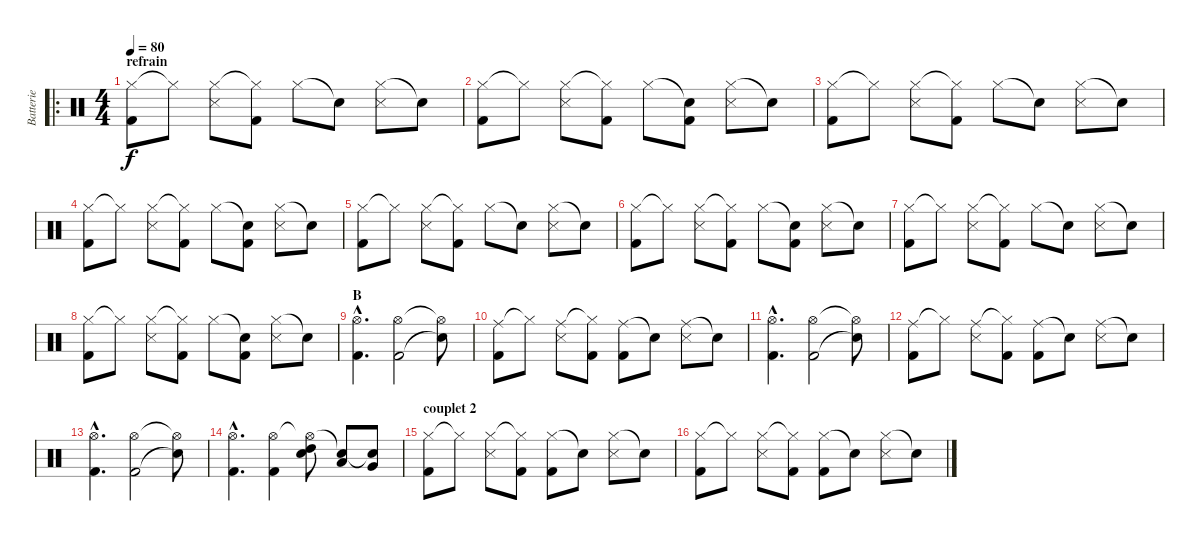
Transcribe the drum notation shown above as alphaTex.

\track ("Batterie" "Batterie") {instrument percussion}
\staff {score}
\articulation defaults
\ro
\ts (4 4)
\section ("" "refrain")
\tempo 80
\clef neutral
\ks c
("Hi-Hat (closed)" "Kick (hit) 2").8{dy f} "Hi-Hat (closed)"{t}.8 ("Hi-Hat (closed)" "Snare (side stick) 3").8 ("Hi-Hat (closed)"{t} "Kick (hit) 2").8 "Hi-Hat (closed)".8 "Snare (hit)"{t}.8 ("Hi-Hat (closed)" "Snare (side stick) 3").8 "Snare (hit)"{t}.8 |
("Hi-Hat (closed)" "Kick (hit) 2").8 "Hi-Hat (closed)"{t}.8 ("Hi-Hat (closed)" "Snare (side stick) 3").8 ("Hi-Hat (closed)"{t} "Kick (hit) 2").8 "Hi-Hat (closed)".8 ("Snare (hit)"{t} "Kick (hit) 2").8 ("Hi-Hat (closed)" "Snare (side stick) 3").8 "Snare (hit)"{t}.8 |
("Hi-Hat (closed)" "Kick (hit) 2").8 "Hi-Hat (closed)"{t}.8 ("Hi-Hat (closed)" "Snare (side stick) 3").8 ("Hi-Hat (closed)"{t} "Kick (hit) 2").8 "Hi-Hat (closed)".8 "Snare (hit)"{t}.8 ("Hi-Hat (closed)" "Snare (side stick) 3").8 "Snare (hit)"{t}.8 |
("Hi-Hat (closed)" "Kick (hit) 2").8 "Hi-Hat (closed)"{t}.8 ("Hi-Hat (closed)" "Snare (side stick) 3").8 ("Hi-Hat (closed)"{t} "Kick (hit) 2").8 "Hi-Hat (closed)".8 ("Snare (hit)"{t} "Kick (hit) 2").8 ("Hi-Hat (closed)" "Snare (side stick) 3").8 "Snare (hit)"{t}.8 |
("Hi-Hat (closed)" "Kick (hit) 2").8 "Hi-Hat (closed)"{t}.8 ("Hi-Hat (closed)" "Snare (side stick) 3").8 ("Hi-Hat (closed)"{t} "Kick (hit) 2").8 "Hi-Hat (closed)".8 "Snare (hit)"{t}.8 ("Hi-Hat (closed)" "Snare (side stick) 3").8 "Snare (hit)"{t}.8 |
("Hi-Hat (closed)" "Kick (hit) 2").8 "Hi-Hat (closed)"{t}.8 ("Hi-Hat (closed)" "Snare (side stick) 3").8 ("Hi-Hat (closed)"{t} "Kick (hit) 2").8 "Hi-Hat (closed)".8 ("Snare (hit)"{t} "Kick (hit) 2").8 ("Hi-Hat (closed)" "Snare (side stick) 3").8 "Snare (hit)"{t}.8 |
("Hi-Hat (closed)" "Kick (hit) 2").8 "Hi-Hat (closed)"{t}.8 ("Hi-Hat (closed)" "Snare (side stick) 3").8 ("Hi-Hat (closed)"{t} "Kick (hit) 2").8 "Hi-Hat (closed)".8 "Snare (hit)"{t}.8 ("Hi-Hat (closed)" "Snare (side stick) 3").8 "Snare (hit)"{t}.8 |
("Hi-Hat (closed)" "Kick (hit) 2").8 "Hi-Hat (closed)"{t}.8 ("Hi-Hat (closed)" "Snare (side stick) 3").8 ("Hi-Hat (closed)"{t} "Kick (hit) 2").8 "Hi-Hat (closed)".8 ("Snare (hit)"{t} "Kick (hit) 2").8 ("Hi-Hat (closed)" "Snare (side stick) 3").8 "Snare (hit)"{t}.8 |
\section ("" "B")
("Hi-Hat (open)"{hac} "Kick (hit) 2"{hac}).4{d} ("Hi-Hat (open)" "Kick (hit) 2").2 ("Hi-Hat (open)"{t} "Snare (hit)"{t}).8 |
("Ride (middle)" "Kick (hit) 2").8 "Hi-Hat (closed)"{t}.8 ("Ride (middle)" "Snare (side stick) 3").8 ("Hi-Hat (closed)"{t} "Kick (hit) 2").8 ("Ride (middle)" "Kick (hit) 2").8 "Snare (hit)"{t}.8 ("Ride (middle)" "Snare (side stick) 3").8 "Snare (hit)"{t}.8 |
("Hi-Hat (open)"{hac} "Kick (hit) 2"{hac}).4{d} ("Hi-Hat (open)" "Kick (hit) 2").2 ("Hi-Hat (open)"{t} "Snare (hit)"{t}).8 |
("Ride (middle)" "Kick (hit) 2").8 "Hi-Hat (closed)"{t}.8 ("Ride (middle)" "Snare (side stick) 3").8 ("Hi-Hat (closed)"{t} "Kick (hit) 2").8 ("Ride (middle)" "Kick (hit) 2").8 "Snare (hit)"{t}.8 ("Ride (middle)" "Snare (side stick) 3").8 "Snare (hit)"{t}.8 |
("Hi-Hat (open)"{hac} "Kick (hit) 2"{hac}).4{d} ("Hi-Hat (open)" "Kick (hit) 2").2 ("Hi-Hat (open)"{t} "Snare (hit)"{t}).8 |
("Hi-Hat (open)"{hac} "Kick (hit) 2"{hac}).4{d} ("Hi-Hat (open)" "Kick (hit) 2").4 ("Hi-Hat (open)"{t} "High Tom (hit)" "Snare (hit)").8 ("Snare (hit)"{t} "Low Tom (hit)").8 ("Snare (hit)"{t} "Very Low Tom (hit)").8 |
\section ("" "couplet 2")
("Hi-Hat (closed)" "Kick (hit) 2").8 "Hi-Hat (closed)"{t}.8 ("Hi-Hat (closed)" "Snare (side stick) 3").8 ("Hi-Hat (closed)"{t} "Kick (hit) 2").8 ("Hi-Hat (closed)" "Kick (hit) 2").8 "Snare (hit)"{t}.8 ("Hi-Hat (closed)" "Snare (side stick) 3").8 "Snare (hit)"{t}.8 |
("Hi-Hat (closed)" "Kick (hit) 2").8 "Hi-Hat (closed)"{t}.8 ("Hi-Hat (closed)" "Snare (side stick) 3").8 ("Hi-Hat (closed)"{t} "Kick (hit) 2").8 ("Hi-Hat (closed)" "Kick (hit) 2").8 "Snare (hit)"{t}.8 ("Hi-Hat (closed)" "Snare (side stick) 3").8 "Snare (hit)"{t}.8
